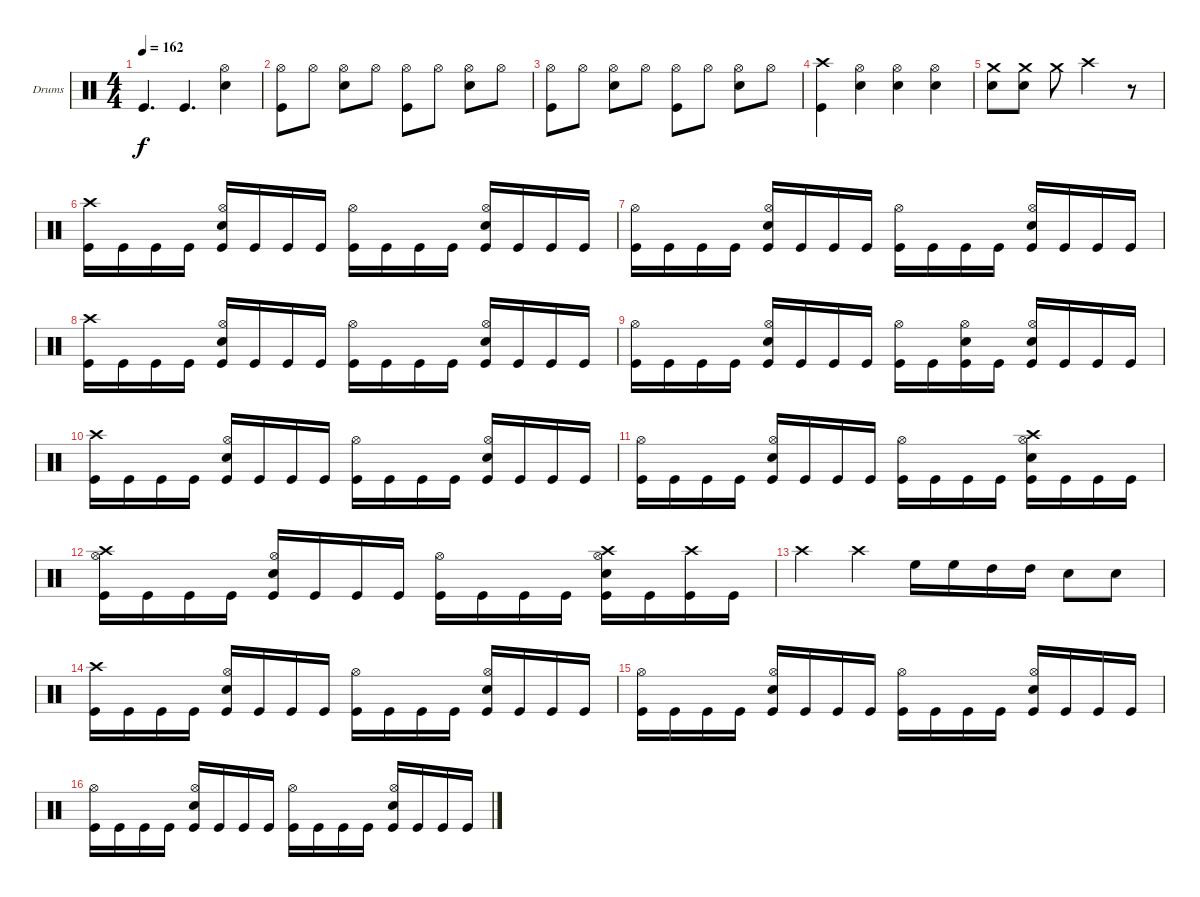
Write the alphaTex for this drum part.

\bracketExtendMode groupsimilarinstruments
\firstSystemTrackNameOrientation horizontal
\otherSystemsTrackNameOrientation horizontal
\track ("Drumkit" "Drums") {instrument percussion}
\staff {score}
\articulation defaults
\ts (4 4)
\tempo 162
\clef neutral
\ks c "Kick (hit)".4{d dy f} "Kick (hit)".4{d}
("Hi-Hat (open)" "Snare (hit) 2").4 |
("Hi-Hat (open)" "Kick (hit)").8 "Hi-Hat (open)".8 ("Snare (hit) 2" "Hi-Hat (open)").8 "Hi-Hat (open)".8 ("Hi-Hat (open)" "Kick (hit)").8 "Hi-Hat (open)".8 ("Snare (hit) 2" "Hi-Hat (open)").8 "Hi-Hat (open)".8 |
("Hi-Hat (open)" "Kick (hit)").8 "Hi-Hat (open)".8 ("Snare (hit) 2" "Hi-Hat (open)").8 "Hi-Hat (open)".8 ("Hi-Hat (open)" "Kick (hit)").8 "Hi-Hat (open)".8 ("Snare (hit) 2" "Hi-Hat (open)").8 "Hi-Hat (open)".8 |
("Crash high (hit)" "Kick (hit)").4 ("Snare (hit) 2" "Hi-Hat (open)").4 ("Hi-Hat (open)" "Snare (hit) 2").4 ("Snare (hit) 2" "Hi-Hat (open)").4 |
("Crash medium (hit)" "Snare (hit) 2").8 ("Crash medium (hit)" "Snare (hit) 2").8 "Crash medium (hit)".8 "Crash high (hit)".2 r.8 |
("Crash high (hit)" "Kick (hit)").16 "Kick (hit)".16 "Kick (hit)".16 "Kick (hit)".16 ("Kick (hit)" "Snare (hit) 2" "Hi-Hat (open)").16 "Kick (hit)".16 "Kick (hit)".16 "Kick (hit)".16 ("Kick (hit)" "Hi-Hat (open)").16 "Kick (hit)".16 "Kick (hit)".16 "Kick (hit)".16 ("Kick (hit)" "Snare (hit) 2" "Hi-Hat (open)").16 "Kick (hit)".16 "Kick (hit)".16 "Kick (hit)".16 |
("Hi-Hat (open)" "Kick (hit)").16 "Kick (hit)".16 "Kick (hit)".16 "Kick (hit)".16 ("Kick (hit)" "Snare (hit) 2" "Hi-Hat (open)").16 "Kick (hit)".16 "Kick (hit)".16 "Kick (hit)".16 ("Kick (hit)" "Hi-Hat (open)").16 "Kick (hit)".16 "Kick (hit)".16 "Kick (hit)".16 ("Kick (hit)" "Snare (hit) 2" "Hi-Hat (open)").16 "Kick (hit)".16 "Kick (hit)".16 "Kick (hit)".16 |
("Crash high (hit)" "Kick (hit)").16 "Kick (hit)".16 "Kick (hit)".16 "Kick (hit)".16 ("Kick (hit)" "Snare (hit) 2" "Hi-Hat (open)").16 "Kick (hit)".16 "Kick (hit)".16 "Kick (hit)".16 ("Kick (hit)" "Hi-Hat (open)").16 "Kick (hit)".16 "Kick (hit)".16 "Kick (hit)".16 ("Kick (hit)" "Snare (hit) 2" "Hi-Hat (open)").16 "Kick (hit)".16 "Kick (hit)".16 "Kick (hit)".16 |
("Hi-Hat (open)" "Kick (hit)").16 "Kick (hit)".16 "Kick (hit)".16 "Kick (hit)".16 ("Kick (hit)" "Snare (hit) 2" "Hi-Hat (open)").16 "Kick (hit)".16 "Kick (hit)".16 "Kick (hit)".16 ("Kick (hit)" "Hi-Hat (open)").16 "Kick (hit)".16 ("Kick (hit)" "Snare (hit) 2" "Hi-Hat (open)").16 "Kick (hit)".16 ("Kick (hit)" "Snare (hit) 2" "Hi-Hat (open)").16 "Kick (hit)".16 "Kick (hit)".16 "Kick (hit)".16 |
("Crash high (hit)" "Kick (hit)").16 "Kick (hit)".16 "Kick (hit)".16 "Kick (hit)".16 ("Kick (hit)" "Snare (hit) 2" "Hi-Hat (open)").16 "Kick (hit)".16 "Kick (hit)".16 "Kick (hit)".16 ("Kick (hit)" "Hi-Hat (open)").16 "Kick (hit)".16 "Kick (hit)".16 "Kick (hit)".16 ("Kick (hit)" "Snare (hit) 2" "Hi-Hat (open)").16 "Kick (hit)".16 "Kick (hit)".16 "Kick (hit)".16 |
("Hi-Hat (open)" "Kick (hit)").16 "Kick (hit)".16 "Kick (hit)".16 "Kick (hit)".16 ("Kick (hit)" "Snare (hit) 2" "Hi-Hat (open)").16 "Kick (hit)".16 "Kick (hit)".16 "Kick (hit)".16 ("Kick (hit)" "Hi-Hat (open)").16 "Kick (hit)".16 "Kick (hit)".16 "Kick (hit)".16 ("Crash high (hit)" "Kick (hit)" "Snare (hit) 2" "Hi-Hat (open)").16 "Kick (hit)".16 "Kick (hit)".16 "Kick (hit)".16 |
("Crash high (hit)" "Hi-Hat (open)" "Kick (hit)").16 "Kick (hit)".16 "Kick (hit)".16 "Kick (hit)".16 ("Kick (hit)" "Snare (hit) 2" "Hi-Hat (open)").16 "Kick (hit)".16 "Kick (hit)".16 "Kick (hit)".16 ("Kick (hit)" "Hi-Hat (open)").16 "Kick (hit)".16 "Kick (hit)".16 "Kick (hit)".16 ("Crash high (hit)" "Kick (hit)" "Snare (hit) 2" "Hi-Hat (open)").16 "Kick (hit)".16 ("Crash high (hit)" "Kick (hit)").16 "Kick (hit)".16 |
"Crash high (hit)".4 "Crash high (hit)".4 "High Floor Tom (hit)".16 "High Floor Tom (hit)".16 "High Tom (hit)".16 "High Tom (hit)".16 "Snare (hit) 2".8 "Snare (hit) 2".8 |
("Crash high (hit)" "Kick (hit)").16 "Kick (hit)".16 "Kick (hit)".16 "Kick (hit)".16 ("Kick (hit)" "Snare (hit) 2" "Hi-Hat (open)").16 "Kick (hit)".16 "Kick (hit)".16 "Kick (hit)".16 ("Kick (hit)" "Hi-Hat (open)").16 "Kick (hit)".16 "Kick (hit)".16 "Kick (hit)".16 ("Kick (hit)" "Snare (hit) 2" "Hi-Hat (open)").16 "Kick (hit)".16 "Kick (hit)".16 "Kick (hit)".16 |
("Hi-Hat (open)" "Kick (hit)").16 "Kick (hit)".16 "Kick (hit)".16 "Kick (hit)".16 ("Kick (hit)" "Snare (hit) 2" "Hi-Hat (open)").16 "Kick (hit)".16 "Kick (hit)".16 "Kick (hit)".16 ("Kick (hit)" "Hi-Hat (open)").16 "Kick (hit)".16 "Kick (hit)".16 "Kick (hit)".16 ("Kick (hit)" "Snare (hit) 2" "Hi-Hat (open)").16 "Kick (hit)".16 "Kick (hit)".16 "Kick (hit)".16 |
("Hi-Hat (open)" "Kick (hit)").16 "Kick (hit)".16 "Kick (hit)".16 "Kick (hit)".16 ("Kick (hit)" "Snare (hit) 2" "Hi-Hat (open)").16 "Kick (hit)".16 "Kick (hit)".16 "Kick (hit)".16 ("Kick (hit)" "Hi-Hat (open)").16 "Kick (hit)".16 "Kick (hit)".16 "Kick (hit)".16 ("Kick (hit)" "Snare (hit) 2" "Hi-Hat (open)").16 "Kick (hit)".16 "Kick (hit)".16 "Kick (hit)".16
